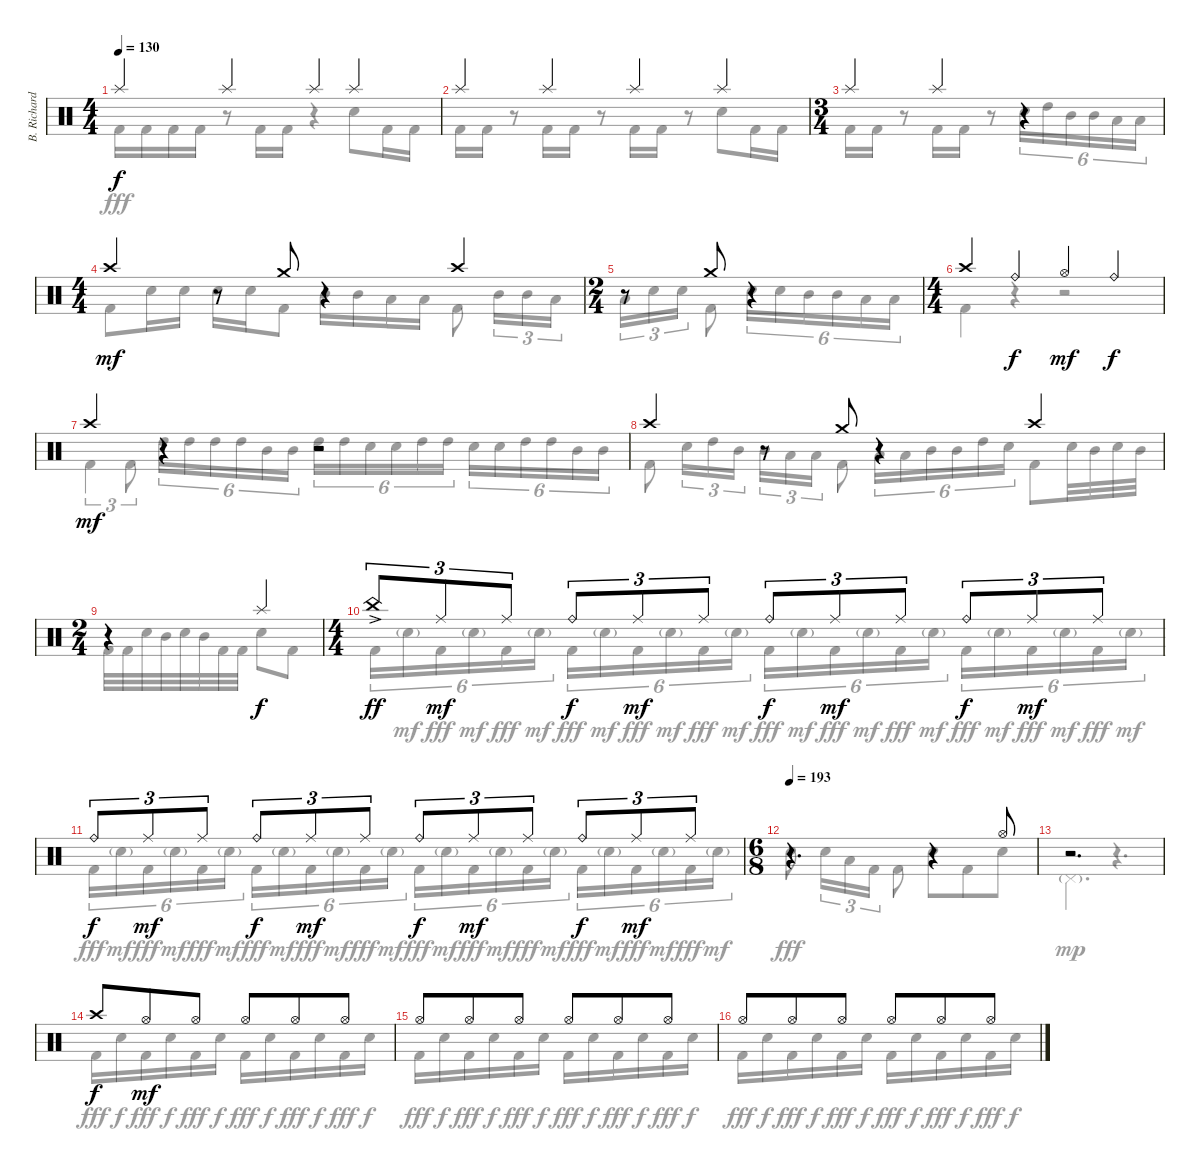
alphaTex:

\track ("B. Richardson Drums" "B. Richard") {instrument percussion}
\staff {score}
\articulation defaults
\voice
\ts (4 4)
\tempo 130
\clef neutral
\ks c "Splash (hit)".4{dy f} "Splash (hit)".4 "Splash (hit)".4 "Splash (hit)".4
|
"Splash (hit)".4 "Splash (hit)".4 "Splash (hit)".4 "Splash (hit)".4 |
\ts (3 4)
"Splash (hit)".4 "Splash (hit)".4 r.4 |
\ts (4 4)
"Crash high (hit)".4{dy mf} r.8 "Crash medium (hit)".8 r.4 "Crash high (hit)".4 |
\ts (2 4)
r.8 "Crash medium (hit)".8 r.4 |
\ts (4 4)
"Crash high (hit)".4 "Ride (bell)".4{dy f} "Hi-Hat (open)".4{dy mf} "Ride (bell)".4{dy f} |
"Crash high (hit)".4{dy mf} r.4 r.2 |
"Crash high (hit)".4 r.8 "Crash medium (hit)".8 r.4 "Crash high (hit)".4 |
\ts (2 4)
r.4 "Splash (hit)".4{dy f} |
\ts (4 4)
"China (hit)"{ac}.8{tu (3 2) dy ff} "Ride (middle)".8{tu (3 2) dy mf} "Ride (middle)".8{tu (3 2)} "Ride (bell)".8{tu (3 2) dy f} "Ride (middle)".8{tu (3 2) dy mf} "Ride (middle)".8{tu (3 2)} "Ride (bell)".8{tu (3 2) dy f} "Ride (middle)".8{tu (3 2) dy mf} "Ride (middle)".8{tu (3 2)} "Ride (bell)".8{tu (3 2) dy f} "Ride (middle)".8{tu (3 2) dy mf} "Ride (middle)".8{tu (3 2)} |
"Ride (bell)".8{tu (3 2) dy f} "Ride (middle)".8{tu (3 2) dy mf} "Ride (middle)".8{tu (3 2)} "Ride (bell)".8{tu (3 2) dy f} "Ride (middle)".8{tu (3 2) dy mf} "Ride (middle)".8{tu (3 2)} "Ride (bell)".8{tu (3 2) dy f} "Ride (middle)".8{tu (3 2) dy mf} "Ride (middle)".8{tu (3 2)} "Ride (bell)".8{tu (3 2) dy f} "Ride (middle)".8{tu (3 2) dy mf} "Ride (middle)".8{tu (3 2)} |
\ts (6 8)
\tempo 193
r.4{d} r.4 "Hi-Hat (open)".8 |
r.2{d} |
"Crash high (hit)".8{dy f} "Hi-Hat (open)".8{dy mf} "Hi-Hat (open)".8 "Hi-Hat (open)".8 "Hi-Hat (open)".8 "Hi-Hat (open)".8 |
"Hi-Hat (open)".8 "Hi-Hat (open)".8 "Hi-Hat (open)".8 "Hi-Hat (open)".8 "Hi-Hat (open)".8 "Hi-Hat (open)".8 |
"Hi-Hat (open)".8 "Hi-Hat (open)".8 "Hi-Hat (open)".8 "Hi-Hat (open)".8 "Hi-Hat (open)".8 "Hi-Hat (open)".8
\voice
\clef neutral
\ottava regular
\simile none
\ks c "Kick (hit) 2".16{dy fff} "Kick (hit) 2".16 "Kick (hit) 2".16 "Kick (hit) 2".16
r.8 "Kick (hit) 2".16 "Kick (hit) 2".16 r.4 "Electric Snare (hit)".8 "Kick (hit) 2".16 "Kick (hit) 2".16 |
"Kick (hit) 2".16 "Kick (hit) 2".16 r.8 "Kick (hit) 2".16 "Kick (hit) 2".16 r.8 "Kick (hit) 2".16 "Kick (hit) 2".16 r.8 "Electric Snare (hit)".8 "Kick (hit) 2".16 "Kick (hit) 2".16 |
"Kick (hit) 2".16 "Kick (hit) 2".16 r.8 "Kick (hit) 2".16 "Kick (hit) 2".16 r.8 "Electric Snare (hit)".16{tu (6 4)} "High Tom (hit)".16{tu (6 4)} "Mid Tom (hit)".16{tu (6 4)} "Mid Tom (hit)".16{tu (6 4)} "Low Tom (hit)".16{tu (6 4)} "Low Tom (hit)".16{tu (6 4)} |
"Kick (hit) 2".8 "Electric Snare (hit)".16 "Electric Snare (hit)".16 "Electric Snare (hit)".16 "Electric Snare (hit)".16 "Kick (hit) 2".8 "Mid Tom (hit)".16 "Mid Tom (hit)".16 "Low Tom (hit)".16 "Low Tom (hit)".16 "Kick (hit) 2".8 "Mid Tom (hit)".16{tu (3 2)} "Mid Tom (hit)".16{tu (3 2)} "Low Tom (hit)".16{tu (3 2)} |
"Low Tom (hit)".16{tu (3 2)} "Electric Snare (hit)".16{tu (3 2)} "Electric Snare (hit)".16{tu (3 2)} "Kick (hit) 2".8 "Electric Snare (hit)".16{tu (6 4)} "Electric Snare (hit)".16{tu (6 4)} "Mid Tom (hit)".16{tu (6 4)} "Mid Tom (hit)".16{tu (6 4)} "Low Tom (hit)".16{tu (6 4)} "Low Tom (hit)".16{tu (6 4)} |
"Kick (hit) 2".4 r.4 r.2 |
"Kick (hit) 2".4{tu (3 2)} "Kick (hit) 2".8{tu (3 2)} "High Tom (hit)".16{tu (6 4)} "High Tom (hit)".16{tu (6 4)} "High Tom (hit)".16{tu (6 4)} "High Tom (hit)".16{tu (6 4)} "Mid Tom (hit)".16{tu (6 4)} "Mid Tom (hit)".16{tu (6 4)} "High Tom (hit)".16{tu (6 4)} "High Tom (hit)".16{tu (6 4)} "Electric Snare (hit)".16{tu (6 4)} "Electric Snare (hit)".16{tu (6 4)} "High Tom (hit)".16{tu (6 4)} "High Tom (hit)".16{tu (6 4)} "Electric Snare (hit)".16{tu (6 4)} "Electric Snare (hit)".16{tu (6 4)} "High Tom (hit)".16{tu (6 4)} "High Tom (hit)".16{tu (6 4)} "Mid Tom (hit)".16{tu (6 4)} "Mid Tom (hit)".16{tu (6 4)} |
"Kick (hit) 2".8 "Electric Snare (hit)".16{tu (3 2)} "High Tom (hit)".16{tu (3 2)} "Mid Tom (hit)".16{tu (3 2)} "Mid Tom (hit)".16{tu (3 2)} "Low Tom (hit)".16{tu (3 2)} "Low Tom (hit)".16{tu (3 2)} "Kick (hit) 2".8 "Low Tom (hit)".16{tu (6 4)} "Low Tom (hit)".16{tu (6 4)} "Mid Tom (hit)".16{tu (6 4)} "Mid Tom (hit)".16{tu (6 4)} "High Tom (hit)".16{tu (6 4)} "Electric Snare (hit)".16{tu (6 4)} "Kick (hit) 2".8 "Electric Snare (hit)".32 "Mid Tom (hit)".32 "Electric Snare (hit)".32 "Mid Tom (hit)".32 |
"Kick (hit) 2".32 "Kick (hit) 2".32 "Electric Snare (hit)".32 "Mid Tom (hit)".32 "Electric Snare (hit)".32 "Mid Tom (hit)".32 "Kick (hit) 2".32 "Kick (hit) 2".32 "Electric Snare (hit)".8 "Kick (hit) 2".8 |
"Kick (hit) 2".16{tu (6 4)} "Electric Snare (hit)"{g}.16{tu (6 4) dy mf} "Kick (hit) 2".16{tu (6 4) dy fff} "Electric Snare (hit)"{g}.16{tu (6 4) dy mf} "Kick (hit) 2".16{tu (6 4) dy fff} "Electric Snare (hit)"{g}.16{tu (6 4) dy mf} "Kick (hit) 2".16{tu (6 4) dy fff} "Electric Snare (hit)"{g}.16{tu (6 4) dy mf} "Kick (hit) 2".16{tu (6 4) dy fff} "Electric Snare (hit)"{g}.16{tu (6 4) dy mf} "Kick (hit) 2".16{tu (6 4) dy fff} "Electric Snare (hit)"{g}.16{tu (6 4) dy mf} "Kick (hit) 2".16{tu (6 4) dy fff} "Electric Snare (hit)"{g}.16{tu (6 4) dy mf} "Kick (hit) 2".16{tu (6 4) dy fff} "Electric Snare (hit)"{g}.16{tu (6 4) dy mf} "Kick (hit) 2".16{tu (6 4) dy fff} "Electric Snare (hit)"{g}.16{tu (6 4) dy mf} "Kick (hit) 2".16{tu (6 4) dy fff} "Electric Snare (hit)"{g}.16{tu (6 4) dy mf} "Kick (hit) 2".16{tu (6 4) dy fff} "Electric Snare (hit)"{g}.16{tu (6 4) dy mf} "Kick (hit) 2".16{tu (6 4) dy fff} "Electric Snare (hit)"{g}.16{tu (6 4) dy mf} |
"Kick (hit) 2".16{tu (6 4) dy fff} "Electric Snare (hit)"{g}.16{tu (6 4) dy mf} "Kick (hit) 2".16{tu (6 4) dy fff} "Electric Snare (hit)"{g}.16{tu (6 4) dy mf} "Kick (hit) 2".16{tu (6 4) dy fff} "Electric Snare (hit)"{g}.16{tu (6 4) dy mf} "Kick (hit) 2".16{tu (6 4) dy fff} "Electric Snare (hit)"{g}.16{tu (6 4) dy mf} "Kick (hit) 2".16{tu (6 4) dy fff} "Electric Snare (hit)"{g}.16{tu (6 4) dy mf} "Kick (hit) 2".16{tu (6 4) dy fff} "Electric Snare (hit)"{g}.16{tu (6 4) dy mf} "Kick (hit) 2".16{tu (6 4) dy fff} "Electric Snare (hit)"{g}.16{tu (6 4) dy mf} "Kick (hit) 2".16{tu (6 4) dy fff} "Electric Snare (hit)"{g}.16{tu (6 4) dy mf} "Kick (hit) 2".16{tu (6 4) dy fff} "Electric Snare (hit)"{g}.16{tu (6 4) dy mf} "Kick (hit) 2".16{tu (6 4) dy fff} "Electric Snare (hit)"{g}.16{tu (6 4) dy mf} "Kick (hit) 2".16{tu (6 4) dy fff} "Electric Snare (hit)"{g}.16{tu (6 4) dy mf} "Kick (hit) 2".16{tu (6 4) dy fff} "Electric Snare (hit)"{g}.16{tu (6 4) dy mf} |
"Electric Snare (hit)".8{dy fff} "Electric Snare (hit)".16{tu (3 2)} "Low Tom (hit)".16{tu (3 2)} "Kick (hit) 2".16{tu (3 2)} "Kick (hit) 2".8 "Electric Snare (hit)".8 "Kick (hit) 2".8 "Electric Snare (hit)".8 |
"Pedal Hi-Hat (hit)"{g}.4{d dy mp} r.4{d} |
"Kick (hit) 2".16{dy fff} "Electric Snare (hit)".16{dy f} "Kick (hit) 2".16{dy fff} "Electric Snare (hit)".16{dy f} "Kick (hit) 2".16{dy fff} "Electric Snare (hit)".16{dy f} "Kick (hit) 2".16{dy fff} "Electric Snare (hit)".16{dy f} "Kick (hit) 2".16{dy fff} "Electric Snare (hit)".16{dy f} "Kick (hit) 2".16{dy fff} "Electric Snare (hit)".16{dy f} |
"Kick (hit) 2".16{dy fff} "Electric Snare (hit)".16{dy f} "Kick (hit) 2".16{dy fff} "Electric Snare (hit)".16{dy f} "Kick (hit) 2".16{dy fff} "Electric Snare (hit)".16{dy f} "Kick (hit) 2".16{dy fff} "Electric Snare (hit)".16{dy f} "Kick (hit) 2".16{dy fff} "Electric Snare (hit)".16{dy f} "Kick (hit) 2".16{dy fff} "Electric Snare (hit)".16{dy f} |
"Kick (hit) 2".16{dy fff} "Electric Snare (hit)".16{dy f} "Kick (hit) 2".16{dy fff} "Electric Snare (hit)".16{dy f} "Kick (hit) 2".16{dy fff} "Electric Snare (hit)".16{dy f} "Kick (hit) 2".16{dy fff} "Electric Snare (hit)".16{dy f} "Kick (hit) 2".16{dy fff} "Electric Snare (hit)".16{dy f} "Kick (hit) 2".16{dy fff} "Electric Snare (hit)".16{dy f}
